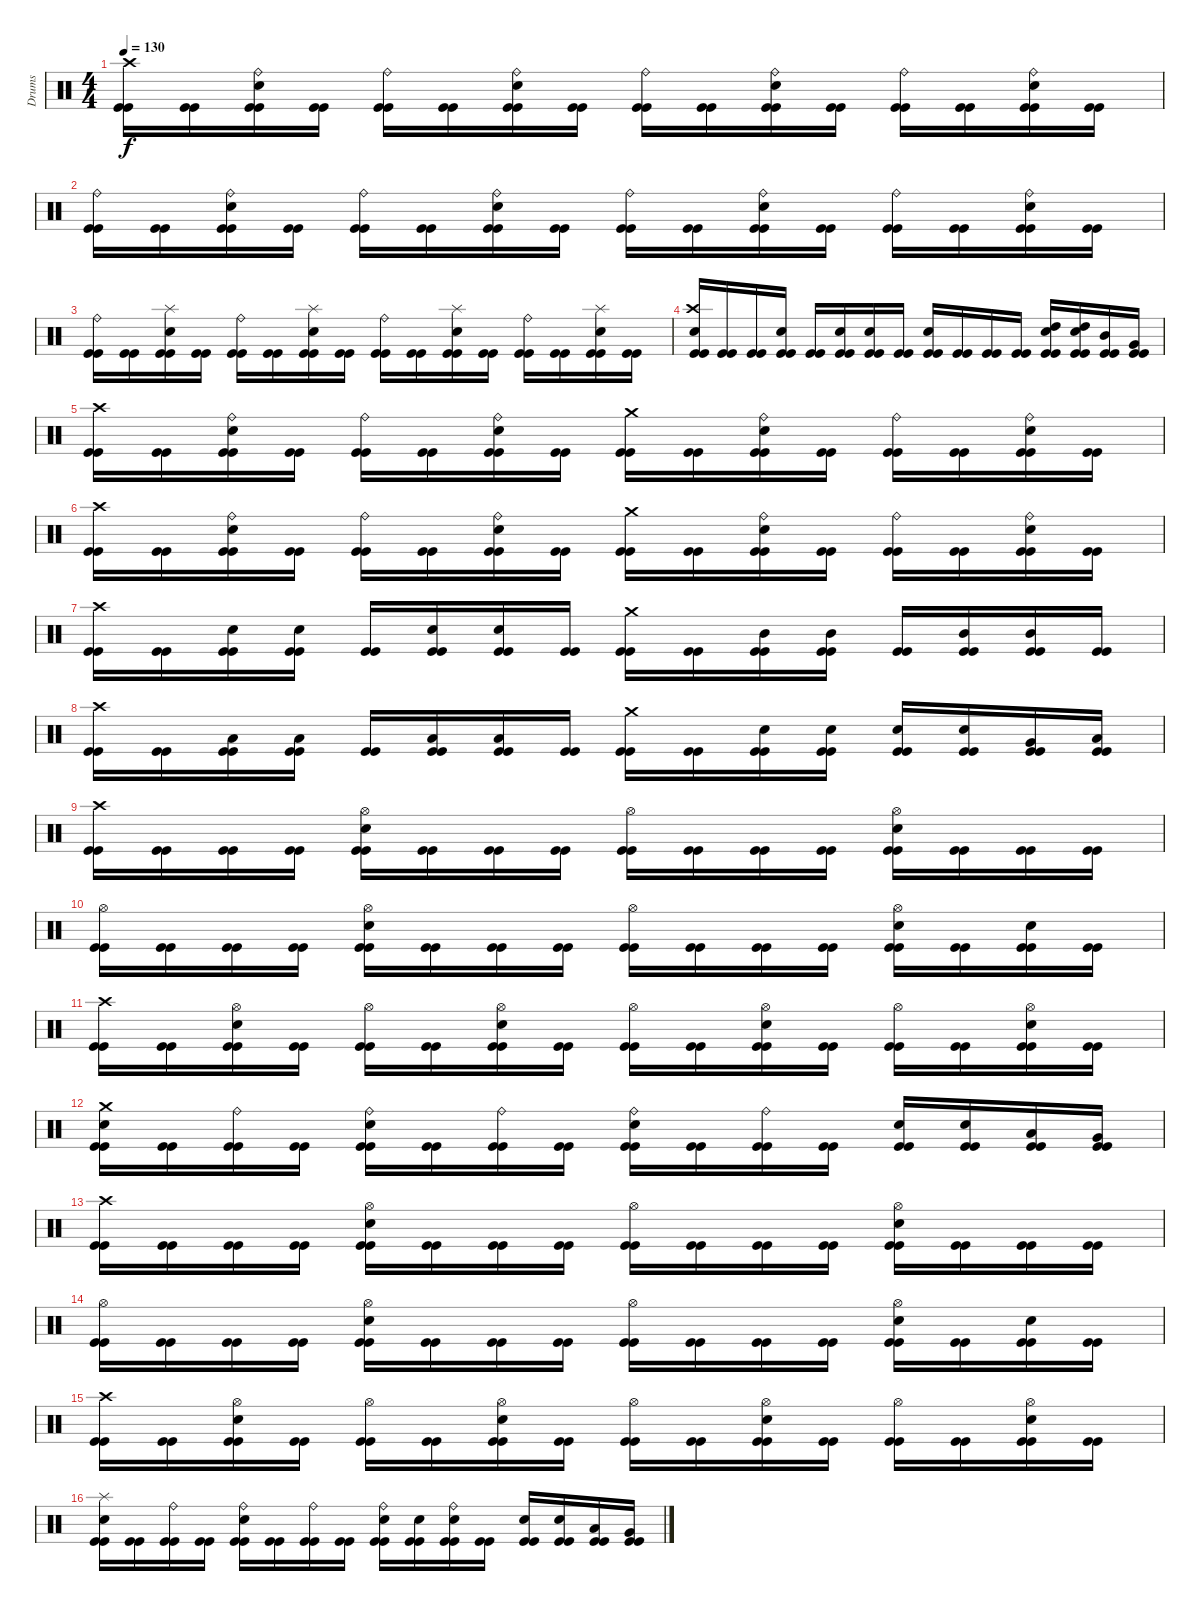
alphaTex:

\track ("Drums" "Drums") {instrument percussion}
\staff {score}
\articulation defaults
\ts (4 4)
\tempo 130
\clef neutral
\ks c
("Kick (hit)" "Kick (hit)" "Crash high (hit)").16{dy f} ("Kick (hit)" "Kick (hit)").16 ("Kick (hit)" "Kick (hit)" "Snare (hit) 2" "Ride (bell)").16 ("Kick (hit)" "Kick (hit)").16 ("Kick (hit)" "Kick (hit)" "Ride (bell)").16 ("Kick (hit)" "Kick (hit)").16 ("Kick (hit)" "Kick (hit)" "Snare (hit) 2" "Ride (bell)").16 ("Kick (hit)" "Kick (hit)").16 ("Kick (hit)" "Kick (hit)" "Ride (bell)").16 ("Kick (hit)" "Kick (hit)").16 ("Kick (hit)" "Kick (hit)" "Snare (hit) 2" "Ride (bell)").16 ("Kick (hit)" "Kick (hit)").16 ("Kick (hit)" "Kick (hit)" "Ride (bell)").16 ("Kick (hit)" "Kick (hit)").16 ("Kick (hit)" "Kick (hit)" "Snare (hit) 2" "Ride (bell)").16 ("Kick (hit)" "Kick (hit)").16 |
("Kick (hit)" "Kick (hit)" "Ride (bell)").16 ("Kick (hit)" "Kick (hit)").16 ("Kick (hit)" "Kick (hit)" "Snare (hit) 2" "Ride (bell)").16 ("Kick (hit)" "Kick (hit)").16 ("Kick (hit)" "Kick (hit)" "Ride (bell)").16 ("Kick (hit)" "Kick (hit)").16 ("Kick (hit)" "Kick (hit)" "Snare (hit) 2" "Ride (bell)").16 ("Kick (hit)" "Kick (hit)").16 ("Kick (hit)" "Kick (hit)" "Ride (bell)").16 ("Kick (hit)" "Kick (hit)").16 ("Kick (hit)" "Kick (hit)" "Snare (hit) 2" "Ride (bell)").16 ("Kick (hit)" "Kick (hit)").16 ("Kick (hit)" "Kick (hit)" "Ride (bell)").16 ("Kick (hit)" "Kick (hit)").16 ("Kick (hit)" "Kick (hit)" "Snare (hit) 2" "Ride (bell)").16 ("Kick (hit)" "Kick (hit)").16 |
("Kick (hit)" "Kick (hit)" "Ride (bell)").16 ("Kick (hit)" "Kick (hit)").16 ("Kick (hit)" "Kick (hit)" "Snare (hit) 2" "Splash (hit)").16 ("Kick (hit)" "Kick (hit)").16 ("Kick (hit)" "Kick (hit)" "Ride (bell)").16 ("Kick (hit)" "Kick (hit)").16 ("Kick (hit)" "Kick (hit)" "Snare (hit) 2" "Splash (hit)").16 ("Kick (hit)" "Kick (hit)").16 ("Kick (hit)" "Kick (hit)" "Ride (bell)").16 ("Kick (hit)" "Kick (hit)").16 ("Kick (hit)" "Kick (hit)" "Snare (hit) 2" "Splash (hit)").16 ("Kick (hit)" "Kick (hit)").16 ("Kick (hit)" "Kick (hit)" "Ride (bell)").16 ("Kick (hit)" "Kick (hit)").16 ("Kick (hit)" "Kick (hit)" "Snare (hit) 2" "Splash (hit)").16 ("Kick (hit)" "Kick (hit)").16 |
("Kick (hit)" "Kick (hit)" "Snare (hit) 2" "Crash high (hit)").16 ("Kick (hit)" "Kick (hit)").16 ("Kick (hit)" "Kick (hit)").16 ("Kick (hit)" "Kick (hit)" "Snare (hit) 2").16 ("Kick (hit)" "Kick (hit)").16 ("Kick (hit)" "Kick (hit)" "Snare (hit) 2").16 ("Kick (hit)" "Kick (hit)" "Snare (hit) 2").16 ("Kick (hit)" "Kick (hit)").16 ("Kick (hit)" "Kick (hit)" "Snare (hit) 2").16 ("Kick (hit)" "Kick (hit)").16 ("Kick (hit)" "Kick (hit)").16 ("Kick (hit)" "Kick (hit)").16 ("Kick (hit)" "Kick (hit)" "High Tom (hit)" "Snare (hit) 2").16 ("Kick (hit)" "Kick (hit)" "High Tom (hit)" "Snare (hit) 2").16 ("Kick (hit)" "Kick (hit)" "Mid Tom (hit)").16 ("Kick (hit)" "Kick (hit)" "Very Low Tom (hit)").16 |
("Kick (hit)" "Kick (hit)" "Crash high (hit)").16 ("Kick (hit)" "Kick (hit)").16 ("Kick (hit)" "Kick (hit)" "Snare (hit) 2" "Ride (bell)").16 ("Kick (hit)" "Kick (hit)").16 ("Kick (hit)" "Kick (hit)" "Ride (bell)").16 ("Kick (hit)" "Kick (hit)").16 ("Kick (hit)" "Kick (hit)" "Snare (hit) 2" "Ride (bell)").16 ("Kick (hit)" "Kick (hit)").16 ("Kick (hit)" "Kick (hit)" "Crash medium (hit)").16 ("Kick (hit)" "Kick (hit)").16 ("Kick (hit)" "Kick (hit)" "Snare (hit) 2" "Ride (bell)").16 ("Kick (hit)" "Kick (hit)").16 ("Kick (hit)" "Kick (hit)" "Ride (bell)").16 ("Kick (hit)" "Kick (hit)").16 ("Kick (hit)" "Kick (hit)" "Snare (hit) 2" "Ride (bell)").16 ("Kick (hit)" "Kick (hit)").16 |
("Kick (hit)" "Kick (hit)" "Crash high (hit)").16 ("Kick (hit)" "Kick (hit)").16 ("Kick (hit)" "Kick (hit)" "Snare (hit) 2" "Ride (bell)").16 ("Kick (hit)" "Kick (hit)").16 ("Kick (hit)" "Kick (hit)" "Ride (bell)").16 ("Kick (hit)" "Kick (hit)").16 ("Kick (hit)" "Kick (hit)" "Snare (hit) 2" "Ride (bell)").16 ("Kick (hit)" "Kick (hit)").16 ("Kick (hit)" "Kick (hit)" "Crash medium (hit)").16 ("Kick (hit)" "Kick (hit)").16 ("Kick (hit)" "Kick (hit)" "Snare (hit) 2" "Ride (bell)").16 ("Kick (hit)" "Kick (hit)").16 ("Kick (hit)" "Kick (hit)" "Ride (bell)").16 ("Kick (hit)" "Kick (hit)").16 ("Kick (hit)" "Kick (hit)" "Snare (hit) 2" "Ride (bell)").16 ("Kick (hit)" "Kick (hit)").16 |
("Kick (hit)" "Kick (hit)" "Crash high (hit)").16 ("Kick (hit)" "Kick (hit)").16 ("Kick (hit)" "Kick (hit)" "Snare (hit) 2").16 ("Kick (hit)" "Kick (hit)" "Snare (hit) 2").16 ("Kick (hit)" "Kick (hit)").16 ("Kick (hit)" "Kick (hit)" "Snare (hit) 2").16 ("Kick (hit)" "Kick (hit)" "Snare (hit) 2").16 ("Kick (hit)" "Kick (hit)").16 ("Kick (hit)" "Kick (hit)" "Crash medium (hit)").16 ("Kick (hit)" "Kick (hit)").16 ("Kick (hit)" "Kick (hit)" "Mid Tom (hit)").16 ("Kick (hit)" "Kick (hit)" "Mid Tom (hit)").16 ("Kick (hit)" "Kick (hit)").16 ("Kick (hit)" "Kick (hit)" "Mid Tom (hit)").16 ("Kick (hit)" "Kick (hit)" "Mid Tom (hit)").16 ("Kick (hit)" "Kick (hit)").16 |
("Kick (hit)" "Kick (hit)" "Crash high (hit)").16 ("Kick (hit)" "Kick (hit)").16 ("Kick (hit)" "Kick (hit)" "Low Tom (hit)").16 ("Kick (hit)" "Kick (hit)" "Low Tom (hit)").16 ("Kick (hit)" "Kick (hit)").16 ("Kick (hit)" "Kick (hit)" "Low Tom (hit)").16 ("Kick (hit)" "Kick (hit)" "Low Tom (hit)").16 ("Kick (hit)" "Kick (hit)").16 ("Kick (hit)" "Kick (hit)" "Crash medium (hit)").16 ("Kick (hit)" "Kick (hit)").16 ("Kick (hit)" "Kick (hit)" "Snare (hit) 2").16 ("Kick (hit)" "Kick (hit)" "Snare (hit) 2").16 ("Kick (hit)" "Kick (hit)" "Snare (hit) 2").16 ("Kick (hit)" "Kick (hit)" "Snare (hit) 2").16 ("Kick (hit)" "Kick (hit)" "Very Low Tom (hit)").16 ("Kick (hit)" "Kick (hit)" "Low Floor Tom (hit)").16 |
("Kick (hit)" "Kick (hit)" "Crash high (hit)").16 ("Kick (hit)" "Kick (hit)").16 ("Kick (hit)" "Kick (hit)").16 ("Kick (hit)" "Kick (hit)").16 ("Kick (hit)" "Kick (hit)" "Snare (hit) 2" "Hi-Hat (open)").16 ("Kick (hit)" "Kick (hit)").16 ("Kick (hit)" "Kick (hit)").16 ("Kick (hit)" "Kick (hit)").16 ("Kick (hit)" "Kick (hit)" "Hi-Hat (open)").16 ("Kick (hit)" "Kick (hit)").16 ("Kick (hit)" "Kick (hit)").16 ("Kick (hit)" "Kick (hit)").16 ("Kick (hit)" "Kick (hit)" "Snare (hit) 2" "Hi-Hat (open)").16 ("Kick (hit)" "Kick (hit)").16 ("Kick (hit)" "Kick (hit)").16 ("Kick (hit)" "Kick (hit)").16 |
("Kick (hit)" "Kick (hit)" "Hi-Hat (open)").16 ("Kick (hit)" "Kick (hit)").16 ("Kick (hit)" "Kick (hit)").16 ("Kick (hit)" "Kick (hit)").16 ("Kick (hit)" "Kick (hit)" "Snare (hit) 2" "Hi-Hat (open)").16 ("Kick (hit)" "Kick (hit)").16 ("Kick (hit)" "Kick (hit)").16 ("Kick (hit)" "Kick (hit)").16 ("Kick (hit)" "Kick (hit)" "Hi-Hat (open)").16 ("Kick (hit)" "Kick (hit)").16 ("Kick (hit)" "Kick (hit)").16 ("Kick (hit)" "Kick (hit)").16 ("Kick (hit)" "Kick (hit)" "Snare (hit) 2" "Hi-Hat (open)").16 ("Kick (hit)" "Kick (hit)").16 ("Kick (hit)" "Kick (hit)" "Snare (hit) 2").16 ("Kick (hit)" "Kick (hit)").16 |
("Kick (hit)" "Kick (hit)" "Crash high (hit)").16 ("Kick (hit)" "Kick (hit)").16 ("Kick (hit)" "Kick (hit)" "Snare (hit) 2" "Hi-Hat (open)").16 ("Kick (hit)" "Kick (hit)").16 ("Kick (hit)" "Kick (hit)" "Hi-Hat (open)").16 ("Kick (hit)" "Kick (hit)").16 ("Kick (hit)" "Kick (hit)" "Snare (hit) 2" "Hi-Hat (open)").16 ("Kick (hit)" "Kick (hit)").16 ("Kick (hit)" "Kick (hit)" "Hi-Hat (open)").16 ("Kick (hit)" "Kick (hit)").16 ("Kick (hit)" "Kick (hit)" "Snare (hit) 2" "Hi-Hat (open)").16 ("Kick (hit)" "Kick (hit)").16 ("Kick (hit)" "Kick (hit)" "Hi-Hat (open)").16 ("Kick (hit)" "Kick (hit)").16 ("Kick (hit)" "Kick (hit)" "Snare (hit) 2" "Hi-Hat (open)").16 ("Kick (hit)" "Kick (hit)").16 |
("Kick (hit)" "Kick (hit)" "Snare (hit) 2" "Crash medium (hit)").16 ("Kick (hit)" "Kick (hit)").16 ("Kick (hit)" "Kick (hit)" "Ride (bell)").16 ("Kick (hit)" "Kick (hit)").16 ("Kick (hit)" "Kick (hit)" "Snare (hit) 2" "Ride (bell)").16 ("Kick (hit)" "Kick (hit)").16 ("Kick (hit)" "Kick (hit)" "Ride (bell)").16 ("Kick (hit)" "Kick (hit)").16 ("Kick (hit)" "Kick (hit)" "Snare (hit) 2" "Ride (bell)").16 ("Kick (hit)" "Kick (hit)").16 ("Kick (hit)" "Kick (hit)" "Ride (bell)").16 ("Kick (hit)" "Kick (hit)").16 ("Kick (hit)" "Kick (hit)" "Snare (hit) 2").16 ("Kick (hit)" "Kick (hit)" "Snare (hit) 2").16 ("Kick (hit)" "Kick (hit)" "Low Tom (hit)").16 ("Kick (hit)" "Kick (hit)" "Very Low Tom (hit)").16 |
("Kick (hit)" "Kick (hit)" "Crash high (hit)").16 ("Kick (hit)" "Kick (hit)").16 ("Kick (hit)" "Kick (hit)").16 ("Kick (hit)" "Kick (hit)").16 ("Kick (hit)" "Kick (hit)" "Snare (hit) 2" "Hi-Hat (open)").16 ("Kick (hit)" "Kick (hit)").16 ("Kick (hit)" "Kick (hit)").16 ("Kick (hit)" "Kick (hit)").16 ("Kick (hit)" "Kick (hit)" "Hi-Hat (open)").16 ("Kick (hit)" "Kick (hit)").16 ("Kick (hit)" "Kick (hit)").16 ("Kick (hit)" "Kick (hit)").16 ("Kick (hit)" "Kick (hit)" "Snare (hit) 2" "Hi-Hat (open)").16 ("Kick (hit)" "Kick (hit)").16 ("Kick (hit)" "Kick (hit)").16 ("Kick (hit)" "Kick (hit)").16 |
("Kick (hit)" "Kick (hit)" "Hi-Hat (open)").16 ("Kick (hit)" "Kick (hit)").16 ("Kick (hit)" "Kick (hit)").16 ("Kick (hit)" "Kick (hit)").16 ("Kick (hit)" "Kick (hit)" "Snare (hit) 2" "Hi-Hat (open)").16 ("Kick (hit)" "Kick (hit)").16 ("Kick (hit)" "Kick (hit)").16 ("Kick (hit)" "Kick (hit)").16 ("Kick (hit)" "Kick (hit)" "Hi-Hat (open)").16 ("Kick (hit)" "Kick (hit)").16 ("Kick (hit)" "Kick (hit)").16 ("Kick (hit)" "Kick (hit)").16 ("Kick (hit)" "Kick (hit)" "Snare (hit) 2" "Hi-Hat (open)").16 ("Kick (hit)" "Kick (hit)").16 ("Kick (hit)" "Kick (hit)" "Snare (hit) 2").16 ("Kick (hit)" "Kick (hit)").16 |
("Kick (hit)" "Kick (hit)" "Crash high (hit)").16 ("Kick (hit)" "Kick (hit)").16 ("Kick (hit)" "Kick (hit)" "Snare (hit) 2" "Hi-Hat (open)").16 ("Kick (hit)" "Kick (hit)").16 ("Kick (hit)" "Kick (hit)" "Hi-Hat (open)").16 ("Kick (hit)" "Kick (hit)").16 ("Kick (hit)" "Kick (hit)" "Snare (hit) 2" "Hi-Hat (open)").16 ("Kick (hit)" "Kick (hit)").16 ("Kick (hit)" "Kick (hit)" "Hi-Hat (open)").16 ("Kick (hit)" "Kick (hit)").16 ("Kick (hit)" "Kick (hit)" "Snare (hit) 2" "Hi-Hat (open)").16 ("Kick (hit)" "Kick (hit)").16 ("Kick (hit)" "Kick (hit)" "Hi-Hat (open)").16 ("Kick (hit)" "Kick (hit)").16 ("Kick (hit)" "Kick (hit)" "Snare (hit) 2" "Hi-Hat (open)").16 ("Kick (hit)" "Kick (hit)").16 |
("Kick (hit)" "Kick (hit)" "Snare (hit) 2" "Splash (hit)").16 ("Kick (hit)" "Kick (hit)").16 ("Kick (hit)" "Kick (hit)" "Ride (bell)").16 ("Kick (hit)" "Kick (hit)").16 ("Kick (hit)" "Kick (hit)" "Snare (hit) 2" "Ride (bell)").16 ("Kick (hit)" "Kick (hit)").16 ("Kick (hit)" "Kick (hit)" "Ride (bell)").16 ("Kick (hit)" "Kick (hit)").16 ("Kick (hit)" "Kick (hit)" "Snare (hit) 2" "Ride (bell)").16 ("Kick (hit)" "Kick (hit)" "Snare (hit) 2").16 ("Kick (hit)" "Kick (hit)" "Snare (hit) 2" "Ride (bell)").16 ("Kick (hit)" "Kick (hit)").16 ("Kick (hit)" "Kick (hit)" "Snare (hit) 2").16 ("Kick (hit)" "Kick (hit)" "Snare (hit) 2").16 ("Kick (hit)" "Kick (hit)" "Low Tom (hit)").16 ("Kick (hit)" "Kick (hit)" "Very Low Tom (hit)").16
